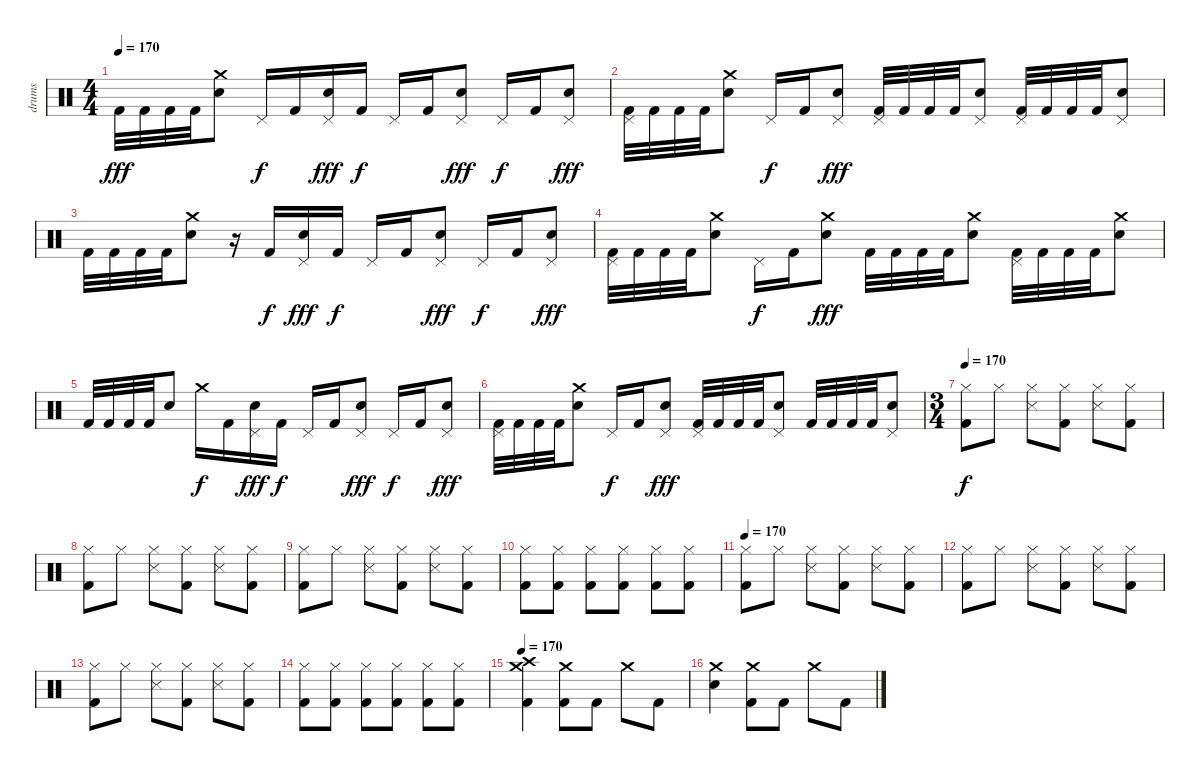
\track ("drums" "drums") {instrument percussion}
\staff {score}
\articulation defaults
\ts (4 4)
\tempo 170
\clef neutral
\ks c "Kick (hit) 2".32{dy fff} "Kick (hit) 2".32 "Kick (hit) 2".32 "Kick (hit) 2".32
("Crash medium (hit)" "Snare (hit) 2").8 "Pedal Hi-Hat (hit)".16{dy f} "Kick (hit) 2".16 ("Pedal Hi-Hat (hit)" "Snare (hit) 2").16{dy fff} "Kick (hit) 2".16{dy f} "Pedal Hi-Hat (hit)".16 "Kick (hit) 2".16 ("Pedal Hi-Hat (hit)" "Snare (hit) 2").8{dy fff} "Pedal Hi-Hat (hit)".16{dy f} "Kick (hit) 2".16 ("Pedal Hi-Hat (hit)" "Snare (hit) 2").8{dy fff} |
("Kick (hit) 2" "Pedal Hi-Hat (hit)").32 "Kick (hit) 2".32 "Kick (hit) 2".32 "Kick (hit) 2".32 ("Crash medium (hit)" "Snare (hit) 2").8 "Pedal Hi-Hat (hit)".16{dy f} "Kick (hit) 2".16 ("Pedal Hi-Hat (hit)" "Snare (hit) 2").8{dy fff} ("Kick (hit) 2" "Pedal Hi-Hat (hit)").32 "Kick (hit) 2".32 "Kick (hit) 2".32 "Kick (hit) 2".32 ("Pedal Hi-Hat (hit)" "Snare (hit) 2").8 ("Kick (hit) 2" "Pedal Hi-Hat (hit)").32 "Kick (hit) 2".32 "Kick (hit) 2".32 "Kick (hit) 2".32 ("Pedal Hi-Hat (hit)" "Snare (hit) 2").8 |
"Kick (hit) 2".32 "Kick (hit) 2".32 "Kick (hit) 2".32 "Kick (hit) 2".32 ("Crash medium (hit)" "Snare (hit) 2").8 r.16 "Kick (hit) 2".16{dy f} ("Pedal Hi-Hat (hit)" "Snare (hit) 2").16{dy fff} "Kick (hit) 2".16{dy f} "Pedal Hi-Hat (hit)".16 "Kick (hit) 2".16 ("Pedal Hi-Hat (hit)" "Snare (hit) 2").8{dy fff} "Pedal Hi-Hat (hit)".16{dy f} "Kick (hit) 2".16 ("Pedal Hi-Hat (hit)" "Snare (hit) 2").8{dy fff} |
("Kick (hit) 2" "Pedal Hi-Hat (hit)").32 "Kick (hit) 2".32 "Kick (hit) 2".32 "Kick (hit) 2".32 ("Crash medium (hit)" "Snare (hit) 2").8 "Pedal Hi-Hat (hit)".16{dy f} "Kick (hit) 2".16 ("Crash medium (hit)" "Snare (hit) 2").8{dy fff} "Kick (hit) 2".32 "Kick (hit) 2".32 "Kick (hit) 2".32 "Kick (hit) 2".32 ("Crash medium (hit)" "Snare (hit) 2").8 ("Kick (hit) 2" "Pedal Hi-Hat (hit)").32 "Kick (hit) 2".32 "Kick (hit) 2".32 "Kick (hit) 2".32 ("Crash medium (hit)" "Snare (hit) 2").8 |
"Kick (hit) 2".32 "Kick (hit) 2".32 "Kick (hit) 2".32 "Kick (hit) 2".32 "Snare (hit) 2".8 "Crash medium (hit)".16{dy f} "Kick (hit) 2".16 ("Pedal Hi-Hat (hit)" "Snare (hit) 2").16{dy fff} "Kick (hit) 2".16{dy f} "Pedal Hi-Hat (hit)".16 "Kick (hit) 2".16 ("Pedal Hi-Hat (hit)" "Snare (hit) 2").8{dy fff} "Pedal Hi-Hat (hit)".16{dy f} "Kick (hit) 2".16 ("Pedal Hi-Hat (hit)" "Snare (hit) 2").8{dy fff} |
("Kick (hit) 2" "Pedal Hi-Hat (hit)").32 "Kick (hit) 2".32 "Kick (hit) 2".32 "Kick (hit) 2".32 ("Crash medium (hit)" "Snare (hit) 2").8 "Pedal Hi-Hat (hit)".16{dy f} "Kick (hit) 2".16 ("Pedal Hi-Hat (hit)" "Snare (hit) 2").8{dy fff} ("Kick (hit) 2" "Pedal Hi-Hat (hit)").32 "Kick (hit) 2".32 "Kick (hit) 2".32 "Kick (hit) 2".32 ("Pedal Hi-Hat (hit)" "Snare (hit) 2").8 "Kick (hit) 2".32 "Kick (hit) 2".32 "Kick (hit) 2".32 "Kick (hit) 2".32 ("Pedal Hi-Hat (hit)" "Snare (hit) 2").8 |
\ts (3 4)
\tempo 170
("Kick (hit) 2" "Hi-Hat (closed)").8{dy f} "Hi-Hat (closed)".8 ("Hi-Hat (closed)" "Snare (side stick) 3").8 ("Kick (hit) 2" "Hi-Hat (closed)").8 ("Hi-Hat (closed)" "Snare (side stick) 3").8 ("Kick (hit) 2" "Hi-Hat (closed)").8 |
("Kick (hit) 2" "Hi-Hat (closed)").8 "Hi-Hat (closed)".8 ("Hi-Hat (closed)" "Snare (side stick) 3").8 ("Kick (hit) 2" "Hi-Hat (closed)").8 ("Hi-Hat (closed)" "Snare (side stick) 3").8 ("Kick (hit) 2" "Hi-Hat (closed)").8 |
("Kick (hit) 2" "Hi-Hat (closed)").8 "Hi-Hat (closed)".8 ("Hi-Hat (closed)" "Snare (side stick) 3").8 ("Kick (hit) 2" "Hi-Hat (closed)").8 ("Hi-Hat (closed)" "Snare (side stick) 3").8 ("Kick (hit) 2" "Hi-Hat (closed)").8 |
("Kick (hit) 2" "Hi-Hat (closed)").8 ("Kick (hit) 2" "Hi-Hat (closed)").8 ("Kick (hit) 2" "Hi-Hat (closed)").8 ("Kick (hit) 2" "Hi-Hat (closed)").8 ("Kick (hit) 2" "Hi-Hat (closed)").8 ("Kick (hit) 2" "Hi-Hat (closed)").8 |
\tempo 170
("Kick (hit) 2" "Hi-Hat (closed)").8 "Hi-Hat (closed)".8 ("Hi-Hat (closed)" "Snare (side stick) 3").8 ("Kick (hit) 2" "Hi-Hat (closed)").8 ("Hi-Hat (closed)" "Snare (side stick) 3").8 ("Kick (hit) 2" "Hi-Hat (closed)").8 |
("Kick (hit) 2" "Hi-Hat (closed)").8 "Hi-Hat (closed)".8 ("Hi-Hat (closed)" "Snare (side stick) 3").8 ("Kick (hit) 2" "Hi-Hat (closed)").8 ("Hi-Hat (closed)" "Snare (side stick) 3").8 ("Kick (hit) 2" "Hi-Hat (closed)").8 |
("Kick (hit) 2" "Hi-Hat (closed)").8 "Hi-Hat (closed)".8 ("Hi-Hat (closed)" "Snare (side stick) 3").8 ("Kick (hit) 2" "Hi-Hat (closed)").8 ("Hi-Hat (closed)" "Snare (side stick) 3").8 ("Kick (hit) 2" "Hi-Hat (closed)").8 |
("Kick (hit) 2" "Hi-Hat (closed)").8 ("Kick (hit) 2" "Hi-Hat (closed)").8 ("Kick (hit) 2" "Hi-Hat (closed)").8 ("Kick (hit) 2" "Hi-Hat (closed)").8 ("Kick (hit) 2" "Hi-Hat (closed)").8 ("Kick (hit) 2" "Hi-Hat (closed)").8 |
\tempo 170
("Kick (hit) 2" "Crash medium (hit)" "Crash high (hit)").4 ("Kick (hit) 2" "Crash medium (hit)").8 "Kick (hit) 2".8 "Crash medium (hit)".8 "Kick (hit) 2".8 |
("Snare (hit) 2" "Crash medium (hit)").4 ("Kick (hit) 2" "Crash medium (hit)").8 "Kick (hit) 2".8 "Crash medium (hit)".8 "Kick (hit) 2".8
